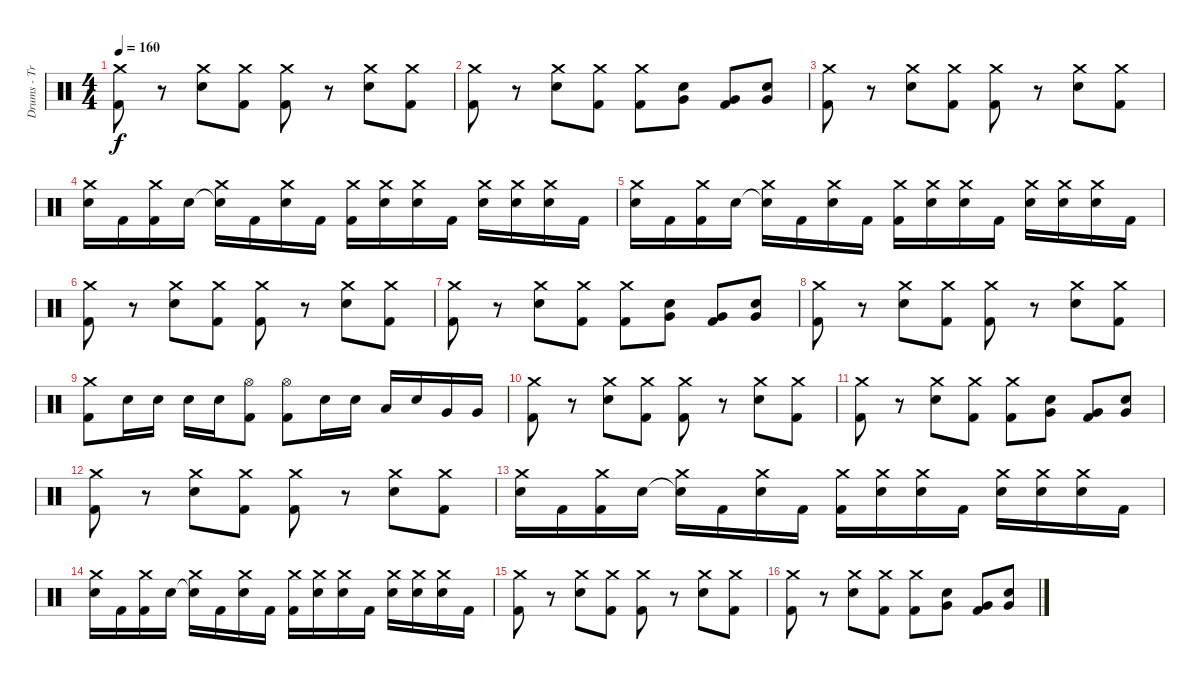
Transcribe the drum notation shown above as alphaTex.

\track ("Drums - Travis Barker" "Drums - Tr") {instrument percussion}
\staff {score}
\articulation defaults
\ts (4 4)
\tempo 160
\clef neutral
\ks c
("Kick (hit) 2" "Crash medium (hit)").8{dy f} r.8 ("Snare (hit) 2" "Crash medium (hit)").8 ("Kick (hit) 2" "Crash medium (hit)").8 ("Kick (hit) 2" "Crash medium (hit)").8 r.8 ("Snare (hit) 2" "Crash medium (hit)").8 ("Kick (hit) 2" "Crash medium (hit)").8 |
("Kick (hit) 2" "Crash medium (hit)").8 r.8 ("Snare (hit) 2" "Crash medium (hit)").8 ("Kick (hit) 2" "Crash medium (hit)").8 ("Kick (hit) 2" "Crash medium (hit)").8 ("Snare (hit) 2" "Very Low Tom (hit)").8 ("Kick (hit) 2" "Very Low Tom (hit)").8 ("Snare (hit) 2" "Very Low Tom (hit)").8 |
("Kick (hit) 2" "Crash medium (hit)").8 r.8 ("Snare (hit) 2" "Crash medium (hit)").8 ("Kick (hit) 2" "Crash medium (hit)").8 ("Kick (hit) 2" "Crash medium (hit)").8 r.8 ("Snare (hit) 2" "Crash medium (hit)").8 ("Kick (hit) 2" "Crash medium (hit)").8 |
("Snare (hit) 2" "Crash medium (hit)").16 "Kick (hit) 2".16 ("Kick (hit) 2" "Crash medium (hit)").16 "Snare (hit) 2".16 ("Snare (hit)"{t} "Crash medium (hit)").16 "Kick (hit) 2".16 ("Snare (hit) 2" "Crash medium (hit)").16 "Kick (hit) 2".16 ("Kick (hit) 2" "Crash medium (hit)").16 ("Snare (hit) 2" "Crash medium (hit)").16 ("Snare (hit) 2" "Crash medium (hit)").16 "Kick (hit) 2".16 ("Snare (hit) 2" "Crash medium (hit)").16 ("Snare (hit) 2" "Crash medium (hit)").16 ("Snare (hit) 2" "Crash medium (hit)").16 "Kick (hit) 2".16 |
("Snare (hit) 2" "Crash medium (hit)").16 "Kick (hit) 2".16 ("Kick (hit) 2" "Crash medium (hit)").16 "Snare (hit) 2".16 ("Snare (hit)"{t} "Crash medium (hit)").16 "Kick (hit) 2".16 ("Snare (hit) 2" "Crash medium (hit)").16 "Kick (hit) 2".16 ("Kick (hit) 2" "Crash medium (hit)").16 ("Snare (hit) 2" "Crash medium (hit)").16 ("Snare (hit) 2" "Crash medium (hit)").16 "Kick (hit) 2".16 ("Snare (hit) 2" "Crash medium (hit)").16 ("Snare (hit) 2" "Crash medium (hit)").16 ("Snare (hit) 2" "Crash medium (hit)").16 "Kick (hit) 2".16 |
("Kick (hit) 2" "Crash medium (hit)").8 r.8 ("Snare (hit) 2" "Crash medium (hit)").8 ("Kick (hit) 2" "Crash medium (hit)").8 ("Kick (hit) 2" "Crash medium (hit)").8 r.8 ("Snare (hit) 2" "Crash medium (hit)").8 ("Kick (hit) 2" "Crash medium (hit)").8 |
("Kick (hit) 2" "Crash medium (hit)").8 r.8 ("Snare (hit) 2" "Crash medium (hit)").8 ("Kick (hit) 2" "Crash medium (hit)").8 ("Kick (hit) 2" "Crash medium (hit)").8 ("Snare (hit) 2" "Very Low Tom (hit)").8 ("Kick (hit) 2" "Very Low Tom (hit)").8 ("Snare (hit) 2" "Very Low Tom (hit)").8 |
("Kick (hit) 2" "Crash medium (hit)").8 r.8 ("Snare (hit) 2" "Crash medium (hit)").8 ("Kick (hit) 2" "Crash medium (hit)").8 ("Kick (hit) 2" "Crash medium (hit)").8 r.8 ("Snare (hit) 2" "Crash medium (hit)").8 ("Kick (hit) 2" "Crash medium (hit)").8 |
("Kick (hit) 2" "Crash medium (hit)").8 "Snare (hit) 2".16 "Snare (hit) 2".16 "Snare (hit) 2".16 "Snare (hit) 2".16 ("Hi-Hat (open)" "Kick (hit) 2").8 ("Hi-Hat (open)" "Kick (hit) 2").8 "Snare (hit) 2".16 "Snare (hit) 2".16 "Low Tom (hit)".16 "Snare (hit) 2".16 "Very Low Tom (hit)".16 "Very Low Tom (hit)".16 |
("Kick (hit) 2" "Crash medium (hit)").8 r.8 ("Snare (hit) 2" "Crash medium (hit)").8 ("Kick (hit) 2" "Crash medium (hit)").8 ("Kick (hit) 2" "Crash medium (hit)").8 r.8 ("Snare (hit) 2" "Crash medium (hit)").8 ("Kick (hit) 2" "Crash medium (hit)").8 |
("Kick (hit) 2" "Crash medium (hit)").8 r.8 ("Snare (hit) 2" "Crash medium (hit)").8 ("Kick (hit) 2" "Crash medium (hit)").8 ("Kick (hit) 2" "Crash medium (hit)").8 ("Snare (hit) 2" "Very Low Tom (hit)").8 ("Kick (hit) 2" "Very Low Tom (hit)").8 ("Snare (hit) 2" "Very Low Tom (hit)").8 |
("Kick (hit) 2" "Crash medium (hit)").8 r.8 ("Snare (hit) 2" "Crash medium (hit)").8 ("Kick (hit) 2" "Crash medium (hit)").8 ("Kick (hit) 2" "Crash medium (hit)").8 r.8 ("Snare (hit) 2" "Crash medium (hit)").8 ("Kick (hit) 2" "Crash medium (hit)").8 |
("Snare (hit) 2" "Crash medium (hit)").16 "Kick (hit) 2".16 ("Kick (hit) 2" "Crash medium (hit)").16 "Snare (hit) 2".16 ("Snare (hit)"{t} "Crash medium (hit)").16 "Kick (hit) 2".16 ("Snare (hit) 2" "Crash medium (hit)").16 "Kick (hit) 2".16 ("Kick (hit) 2" "Crash medium (hit)").16 ("Snare (hit) 2" "Crash medium (hit)").16 ("Snare (hit) 2" "Crash medium (hit)").16 "Kick (hit) 2".16 ("Snare (hit) 2" "Crash medium (hit)").16 ("Snare (hit) 2" "Crash medium (hit)").16 ("Snare (hit) 2" "Crash medium (hit)").16 "Kick (hit) 2".16 |
("Snare (hit) 2" "Crash medium (hit)").16 "Kick (hit) 2".16 ("Kick (hit) 2" "Crash medium (hit)").16 "Snare (hit) 2".16 ("Snare (hit)"{t} "Crash medium (hit)").16 "Kick (hit) 2".16 ("Snare (hit) 2" "Crash medium (hit)").16 "Kick (hit) 2".16 ("Kick (hit) 2" "Crash medium (hit)").16 ("Snare (hit) 2" "Crash medium (hit)").16 ("Snare (hit) 2" "Crash medium (hit)").16 "Kick (hit) 2".16 ("Snare (hit) 2" "Crash medium (hit)").16 ("Snare (hit) 2" "Crash medium (hit)").16 ("Snare (hit) 2" "Crash medium (hit)").16 "Kick (hit) 2".16 |
("Kick (hit) 2" "Crash medium (hit)").8 r.8 ("Snare (hit) 2" "Crash medium (hit)").8 ("Kick (hit) 2" "Crash medium (hit)").8 ("Kick (hit) 2" "Crash medium (hit)").8 r.8 ("Snare (hit) 2" "Crash medium (hit)").8 ("Kick (hit) 2" "Crash medium (hit)").8 |
("Kick (hit) 2" "Crash medium (hit)").8 r.8 ("Snare (hit) 2" "Crash medium (hit)").8 ("Kick (hit) 2" "Crash medium (hit)").8 ("Kick (hit) 2" "Crash medium (hit)").8 ("Snare (hit) 2" "Very Low Tom (hit)").8 ("Kick (hit) 2" "Very Low Tom (hit)").8 ("Snare (hit) 2" "Very Low Tom (hit)").8
